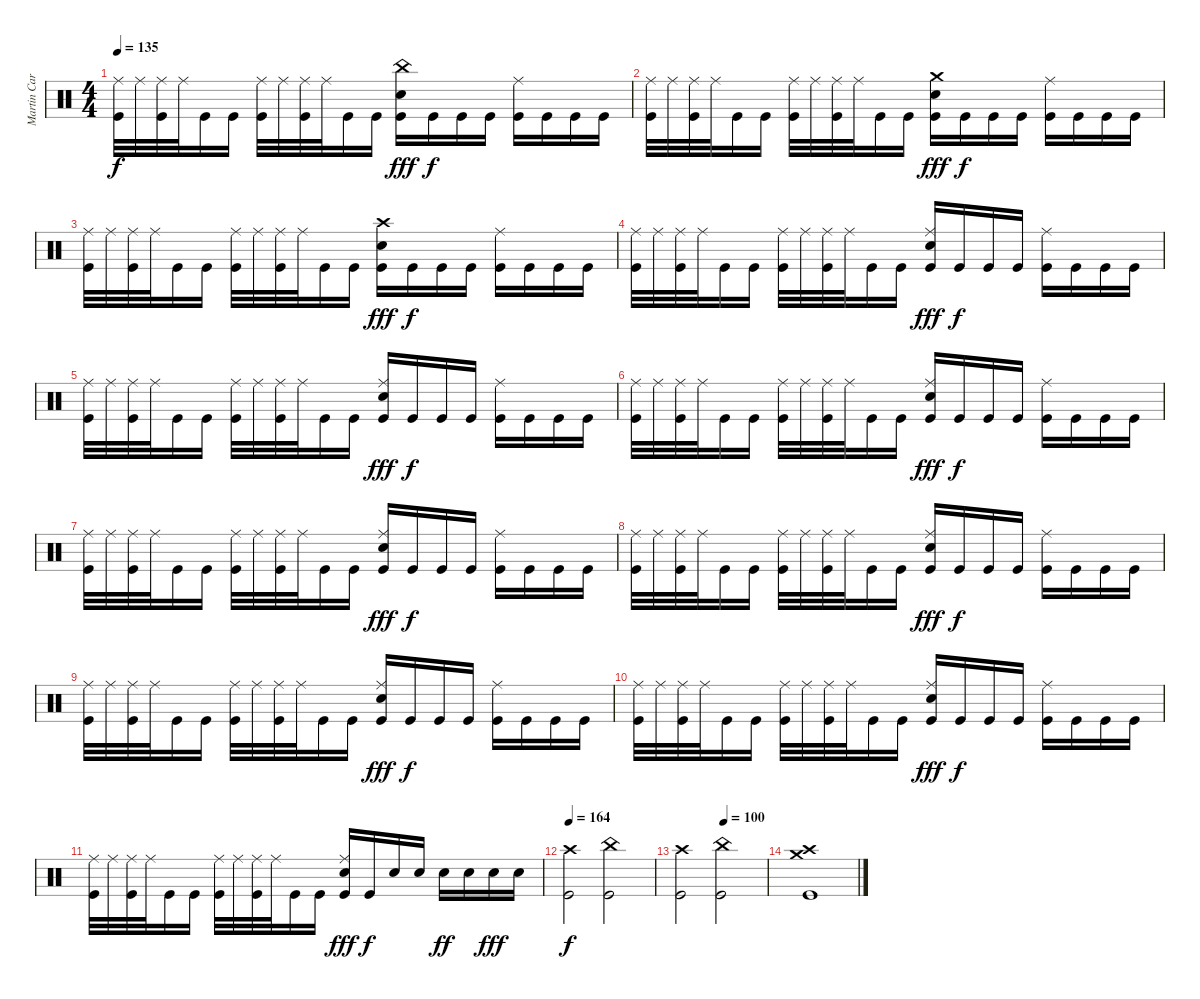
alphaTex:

\track ("Martin Carrizo" "Martin Car") {instrument percussion}
\staff {score}
\articulation defaults
\ts (4 4)
\tempo 135
\clef neutral
\ks c
("Kick (hit)" "Ride (middle)").32{dy f} "Ride (middle)".32 ("Kick (hit)" "Ride (middle)").32 "Ride (middle)".32 "Kick (hit)".16 "Kick (hit)".16 ("Kick (hit)" "Ride (middle)").32 "Ride (middle)".32 ("Kick (hit)" "Ride (middle)").32 "Ride (middle)".32 "Kick (hit)".16 "Kick (hit)".16 ("Kick (hit)" "Snare (hit) 2" "China (hit)").16{dy fff} "Kick (hit)".16{dy f} "Kick (hit)".16 "Kick (hit)".16 ("Kick (hit)" "Ride (middle)").16 "Kick (hit)".16 "Kick (hit)".16 "Kick (hit)".16 |
("Kick (hit)" "Ride (middle)").32 "Ride (middle)".32 ("Kick (hit)" "Ride (middle)").32 "Ride (middle)".32 "Kick (hit)".16 "Kick (hit)".16 ("Kick (hit)" "Ride (middle)").32 "Ride (middle)".32 ("Kick (hit)" "Ride (middle)").32 "Ride (middle)".32 "Kick (hit)".16 "Kick (hit)".16 ("Kick (hit)" "Snare (hit) 2" "Crash medium (hit)").16{dy fff} "Kick (hit)".16{dy f} "Kick (hit)".16 "Kick (hit)".16 ("Kick (hit)" "Ride (middle)").16 "Kick (hit)".16 "Kick (hit)".16 "Kick (hit)".16 |
("Kick (hit)" "Ride (middle)").32 "Ride (middle)".32 ("Kick (hit)" "Ride (middle)").32 "Ride (middle)".32 "Kick (hit)".16 "Kick (hit)".16 ("Kick (hit)" "Ride (middle)").32 "Ride (middle)".32 ("Kick (hit)" "Ride (middle)").32 "Ride (middle)".32 "Kick (hit)".16 "Kick (hit)".16 ("Kick (hit)" "Snare (hit) 2" "Crash high (hit)").16{dy fff} "Kick (hit)".16{dy f} "Kick (hit)".16 "Kick (hit)".16 ("Kick (hit)" "Ride (middle)").16 "Kick (hit)".16 "Kick (hit)".16 "Kick (hit)".16 |
("Kick (hit)" "Ride (middle)").32 "Ride (middle)".32 ("Kick (hit)" "Ride (middle)").32 "Ride (middle)".32 "Kick (hit)".16 "Kick (hit)".16 ("Kick (hit)" "Ride (middle)").32 "Ride (middle)".32 ("Kick (hit)" "Ride (middle)").32 "Ride (middle)".32 "Kick (hit)".16 "Kick (hit)".16 ("Kick (hit)" "Snare (hit) 2" "Ride (middle)").16{dy fff} "Kick (hit)".16{dy f} "Kick (hit)".16 "Kick (hit)".16 ("Kick (hit)" "Ride (middle)").16 "Kick (hit)".16 "Kick (hit)".16 "Kick (hit)".16 |
("Kick (hit)" "Ride (middle)").32 "Ride (middle)".32 ("Kick (hit)" "Ride (middle)").32 "Ride (middle)".32 "Kick (hit)".16 "Kick (hit)".16 ("Kick (hit)" "Ride (middle)").32 "Ride (middle)".32 ("Kick (hit)" "Ride (middle)").32 "Ride (middle)".32 "Kick (hit)".16 "Kick (hit)".16 ("Kick (hit)" "Snare (hit) 2" "Ride (middle)").16{dy fff} "Kick (hit)".16{dy f} "Kick (hit)".16 "Kick (hit)".16 ("Kick (hit)" "Ride (middle)").16 "Kick (hit)".16 "Kick (hit)".16 "Kick (hit)".16 |
("Kick (hit)" "Ride (middle)").32 "Ride (middle)".32 ("Kick (hit)" "Ride (middle)").32 "Ride (middle)".32 "Kick (hit)".16 "Kick (hit)".16 ("Kick (hit)" "Ride (middle)").32 "Ride (middle)".32 ("Kick (hit)" "Ride (middle)").32 "Ride (middle)".32 "Kick (hit)".16 "Kick (hit)".16 ("Kick (hit)" "Snare (hit) 2" "Ride (middle)").16{dy fff} "Kick (hit)".16{dy f} "Kick (hit)".16 "Kick (hit)".16 ("Kick (hit)" "Ride (middle)").16 "Kick (hit)".16 "Kick (hit)".16 "Kick (hit)".16 |
("Kick (hit)" "Ride (middle)").32 "Ride (middle)".32 ("Kick (hit)" "Ride (middle)").32 "Ride (middle)".32 "Kick (hit)".16 "Kick (hit)".16 ("Kick (hit)" "Ride (middle)").32 "Ride (middle)".32 ("Kick (hit)" "Ride (middle)").32 "Ride (middle)".32 "Kick (hit)".16 "Kick (hit)".16 ("Kick (hit)" "Snare (hit) 2" "Ride (middle)").16{dy fff} "Kick (hit)".16{dy f} "Kick (hit)".16 "Kick (hit)".16 ("Kick (hit)" "Ride (middle)").16 "Kick (hit)".16 "Kick (hit)".16 "Kick (hit)".16 |
("Kick (hit)" "Ride (middle)").32 "Ride (middle)".32 ("Kick (hit)" "Ride (middle)").32 "Ride (middle)".32 "Kick (hit)".16 "Kick (hit)".16 ("Kick (hit)" "Ride (middle)").32 "Ride (middle)".32 ("Kick (hit)" "Ride (middle)").32 "Ride (middle)".32 "Kick (hit)".16 "Kick (hit)".16 ("Kick (hit)" "Snare (hit) 2" "Ride (middle)").16{dy fff} "Kick (hit)".16{dy f} "Kick (hit)".16 "Kick (hit)".16 ("Kick (hit)" "Ride (middle)").16 "Kick (hit)".16 "Kick (hit)".16 "Kick (hit)".16 |
("Kick (hit)" "Ride (middle)").32 "Ride (middle)".32 ("Kick (hit)" "Ride (middle)").32 "Ride (middle)".32 "Kick (hit)".16 "Kick (hit)".16 ("Kick (hit)" "Ride (middle)").32 "Ride (middle)".32 ("Kick (hit)" "Ride (middle)").32 "Ride (middle)".32 "Kick (hit)".16 "Kick (hit)".16 ("Kick (hit)" "Snare (hit) 2" "Ride (middle)").16{dy fff} "Kick (hit)".16{dy f} "Kick (hit)".16 "Kick (hit)".16 ("Kick (hit)" "Ride (middle)").16 "Kick (hit)".16 "Kick (hit)".16 "Kick (hit)".16 |
("Kick (hit)" "Ride (middle)").32 "Ride (middle)".32 ("Kick (hit)" "Ride (middle)").32 "Ride (middle)".32 "Kick (hit)".16 "Kick (hit)".16 ("Kick (hit)" "Ride (middle)").32 "Ride (middle)".32 ("Kick (hit)" "Ride (middle)").32 "Ride (middle)".32 "Kick (hit)".16 "Kick (hit)".16 ("Kick (hit)" "Snare (hit) 2" "Ride (middle)").16{dy fff} "Kick (hit)".16{dy f} "Kick (hit)".16 "Kick (hit)".16 ("Kick (hit)" "Ride (middle)").16 "Kick (hit)".16 "Kick (hit)".16 "Kick (hit)".16 |
("Kick (hit)" "Ride (middle)").32 "Ride (middle)".32 ("Kick (hit)" "Ride (middle)").32 "Ride (middle)".32 "Kick (hit)".16 "Kick (hit)".16 ("Kick (hit)" "Ride (middle)").32 "Ride (middle)".32 ("Kick (hit)" "Ride (middle)").32 "Ride (middle)".32 "Kick (hit)".16 "Kick (hit)".16 ("Kick (hit)" "Snare (hit) 2" "Ride (middle)").16{dy fff} "Kick (hit)".16{dy f} "Snare (hit) 2".16 "Snare (hit) 2".16 "Snare (hit) 2".16{dy ff} "Snare (hit) 2".16 "Snare (hit) 2".16{dy fff} "Snare (hit) 2".16 |
\tempo 164
("Kick (hit)" "Crash high (hit)").2{dy f} ("Kick (hit)" "China (hit)").2 |
\tempo (100 0.5)
("Kick (hit)" "Crash high (hit)").2 ("Kick (hit)" "China (hit)").2 |
("Kick (hit)" "Crash high (hit)" "Crash medium (hit)").1
